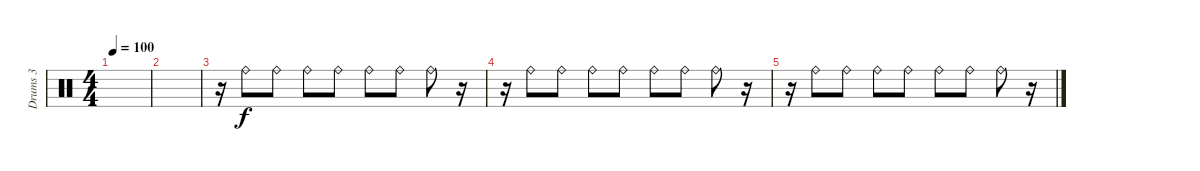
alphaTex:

\track ("Drums 3" "Drums 3") {instrument percussion}
\staff {score}
\articulation defaults
\ts (4 4)
\tempo 100
\clef neutral
\ks c
|
|
r.16 "Ride (bell)".8 "Ride (bell)".8 "Ride (bell)".8 "Ride (bell)".8 "Ride (bell)".8 "Ride (bell)".8 "Ride (bell)".8 r.16 |
r.16 "Ride (bell)".8 "Ride (bell)".8 "Ride (bell)".8 "Ride (bell)".8 "Ride (bell)".8 "Ride (bell)".8 "Ride (bell)".8 r.16 |
r.16 "Ride (bell)".8 "Ride (bell)".8 "Ride (bell)".8 "Ride (bell)".8 "Ride (bell)".8 "Ride (bell)".8 "Ride (bell)".8 r.16
